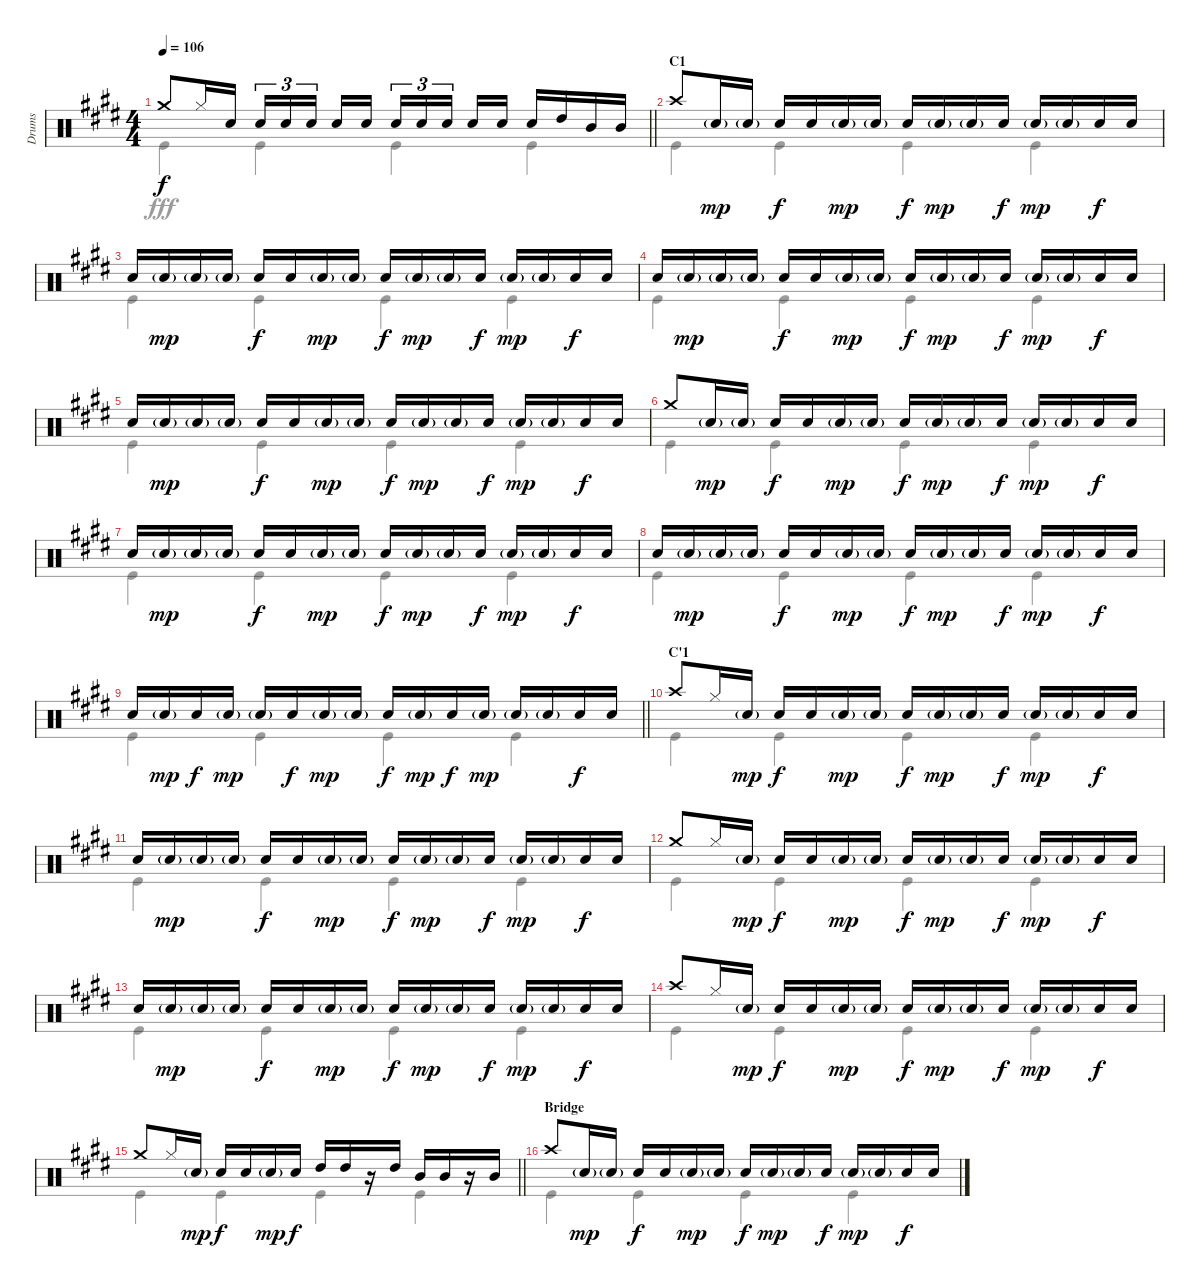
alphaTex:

\track ("Drums" "Drums") {instrument percussion}
\staff {score}
\articulation defaults
\voice
\ts (4 4)
\tempo 106
\clef neutral
\barLineRight lightlight
\ks e "Crash medium (hit)".8{dy f} "Hi-Hat (closed)".16 "Snare (hit) 2".16 "Snare (hit) 2".16{tu (3 2)} "Snare (hit) 2".16{tu (3 2)} "Snare (hit) 2".16{tu (3 2) beam splitsecondary} "Snare (hit) 2".16 "Snare (hit) 2".16 "Snare (hit) 2".16{tu (3 2)} "Snare (hit) 2".16{tu (3 2)} "Snare (hit) 2".16{tu (3 2) beam splitsecondary} "Snare (hit) 2".16 "Snare (hit) 2".16 "Snare (hit) 2".16 "High Tom (hit)".16 "Mid Tom (hit)".16 "Mid Tom (hit)".16
|
\section ("" "C1")
"Crash high (hit)".8 "Snare (hit) 2"{g}.16{dy mp} "Snare (hit) 2"{g}.16 "Snare (hit) 2".16{dy f} "Snare (hit) 2".16 "Snare (hit) 2"{g}.16{dy mp} "Snare (hit) 2"{g}.16 "Snare (hit) 2".16{dy f} "Snare (hit) 2"{g}.16{dy mp} "Snare (hit) 2"{g}.16 "Snare (hit) 2".16{dy f} "Snare (hit) 2"{g}.16{dy mp} "Snare (hit) 2"{g}.16 "Snare (hit) 2".16{dy f} "Snare (hit) 2".16 |
"Snare (hit) 2".16 "Snare (hit) 2"{g}.16{dy mp} "Snare (hit) 2"{g}.16 "Snare (hit) 2"{g}.16 "Snare (hit) 2".16{dy f} "Snare (hit) 2".16 "Snare (hit) 2"{g}.16{dy mp} "Snare (hit) 2"{g}.16 "Snare (hit) 2".16{dy f} "Snare (hit) 2"{g}.16{dy mp} "Snare (hit) 2"{g}.16 "Snare (hit) 2".16{dy f} "Snare (hit) 2"{g}.16{dy mp} "Snare (hit) 2"{g}.16 "Snare (hit) 2".16{dy f} "Snare (hit) 2".16 |
"Snare (hit) 2".16 "Snare (hit) 2"{g}.16{dy mp} "Snare (hit) 2"{g}.16 "Snare (hit) 2"{g}.16 "Snare (hit) 2".16{dy f} "Snare (hit) 2".16 "Snare (hit) 2"{g}.16{dy mp} "Snare (hit) 2"{g}.16 "Snare (hit) 2".16{dy f} "Snare (hit) 2"{g}.16{dy mp} "Snare (hit) 2"{g}.16 "Snare (hit) 2".16{dy f} "Snare (hit) 2"{g}.16{dy mp} "Snare (hit) 2"{g}.16 "Snare (hit) 2".16{dy f} "Snare (hit) 2".16 |
"Snare (hit) 2".16 "Snare (hit) 2"{g}.16{dy mp} "Snare (hit) 2"{g}.16 "Snare (hit) 2"{g}.16 "Snare (hit) 2".16{dy f} "Snare (hit) 2".16 "Snare (hit) 2"{g}.16{dy mp} "Snare (hit) 2"{g}.16 "Snare (hit) 2".16{dy f} "Snare (hit) 2"{g}.16{dy mp} "Snare (hit) 2"{g}.16 "Snare (hit) 2".16{dy f} "Snare (hit) 2"{g}.16{dy mp} "Snare (hit) 2"{g}.16 "Snare (hit) 2".16{dy f} "Snare (hit) 2".16 |
"Crash medium (hit)".8 "Snare (hit) 2"{g}.16{dy mp} "Snare (hit) 2"{g}.16 "Snare (hit) 2".16{dy f} "Snare (hit) 2".16 "Snare (hit) 2"{g}.16{dy mp} "Snare (hit) 2"{g}.16 "Snare (hit) 2".16{dy f} "Snare (hit) 2"{g}.16{dy mp} "Snare (hit) 2"{g}.16 "Snare (hit) 2".16{dy f} "Snare (hit) 2"{g}.16{dy mp} "Snare (hit) 2"{g}.16 "Snare (hit) 2".16{dy f} "Snare (hit) 2".16 |
"Snare (hit) 2".16 "Snare (hit) 2"{g}.16{dy mp} "Snare (hit) 2"{g}.16 "Snare (hit) 2"{g}.16 "Snare (hit) 2".16{dy f} "Snare (hit) 2".16 "Snare (hit) 2"{g}.16{dy mp} "Snare (hit) 2"{g}.16 "Snare (hit) 2".16{dy f} "Snare (hit) 2"{g}.16{dy mp} "Snare (hit) 2"{g}.16 "Snare (hit) 2".16{dy f} "Snare (hit) 2"{g}.16{dy mp} "Snare (hit) 2"{g}.16 "Snare (hit) 2".16{dy f} "Snare (hit) 2".16 |
"Snare (hit) 2".16 "Snare (hit) 2"{g}.16{dy mp} "Snare (hit) 2"{g}.16 "Snare (hit) 2"{g}.16 "Snare (hit) 2".16{dy f} "Snare (hit) 2".16 "Snare (hit) 2"{g}.16{dy mp} "Snare (hit) 2"{g}.16 "Snare (hit) 2".16{dy f} "Snare (hit) 2"{g}.16{dy mp} "Snare (hit) 2"{g}.16 "Snare (hit) 2".16{dy f} "Snare (hit) 2"{g}.16{dy mp} "Snare (hit) 2"{g}.16 "Snare (hit) 2".16{dy f} "Snare (hit) 2".16 |
\barLineRight lightlight "Snare (hit) 2".16 "Snare (hit) 2"{g}.16{dy mp} "Snare (hit) 2".16{dy f} "Snare (hit) 2"{g}.16{dy mp} "Snare (hit) 2"{g}.16 "Snare (hit) 2".16{dy f} "Snare (hit) 2"{g}.16{dy mp} "Snare (hit) 2"{g}.16 "Snare (hit) 2".16{dy f} "Snare (hit) 2"{g}.16{dy mp} "Snare (hit) 2".16{dy f} "Snare (hit) 2"{g}.16{dy mp} "Snare (hit) 2"{g}.16 "Snare (hit) 2"{g}.16 "Snare (hit) 2".16{dy f} "Snare (hit) 2".16
|
\section ("" "C'1")
"Crash high (hit)".8 "Hi-Hat (closed)".16 "Snare (hit) 2"{g}.16{dy mp} "Snare (hit) 2".16{dy f} "Snare (hit) 2".16 "Snare (hit) 2"{g}.16{dy mp} "Snare (hit) 2"{g}.16 "Snare (hit) 2".16{dy f} "Snare (hit) 2"{g}.16{dy mp} "Snare (hit) 2"{g}.16 "Snare (hit) 2".16{dy f} "Snare (hit) 2"{g}.16{dy mp} "Snare (hit) 2"{g}.16 "Snare (hit) 2".16{dy f} "Snare (hit) 2".16 |
"Snare (hit) 2".16 "Snare (hit) 2"{g}.16{dy mp} "Snare (hit) 2"{g}.16 "Snare (hit) 2"{g}.16 "Snare (hit) 2".16{dy f} "Snare (hit) 2".16 "Snare (hit) 2"{g}.16{dy mp} "Snare (hit) 2"{g}.16 "Snare (hit) 2".16{dy f} "Snare (hit) 2"{g}.16{dy mp} "Snare (hit) 2"{g}.16 "Snare (hit) 2".16{dy f} "Snare (hit) 2"{g}.16{dy mp} "Snare (hit) 2"{g}.16 "Snare (hit) 2".16{dy f} "Snare (hit) 2".16 |
"Crash medium (hit)".8 "Hi-Hat (closed)".16 "Snare (hit) 2"{g}.16{dy mp} "Snare (hit) 2".16{dy f} "Snare (hit) 2".16 "Snare (hit) 2"{g}.16{dy mp} "Snare (hit) 2"{g}.16 "Snare (hit) 2".16{dy f} "Snare (hit) 2"{g}.16{dy mp} "Snare (hit) 2"{g}.16 "Snare (hit) 2".16{dy f} "Snare (hit) 2"{g}.16{dy mp} "Snare (hit) 2"{g}.16 "Snare (hit) 2".16{dy f} "Snare (hit) 2".16 |
"Snare (hit) 2".16 "Snare (hit) 2"{g}.16{dy mp} "Snare (hit) 2"{g}.16 "Snare (hit) 2"{g}.16 "Snare (hit) 2".16{dy f} "Snare (hit) 2".16 "Snare (hit) 2"{g}.16{dy mp} "Snare (hit) 2"{g}.16 "Snare (hit) 2".16{dy f} "Snare (hit) 2"{g}.16{dy mp} "Snare (hit) 2"{g}.16 "Snare (hit) 2".16{dy f} "Snare (hit) 2"{g}.16{dy mp} "Snare (hit) 2"{g}.16 "Snare (hit) 2".16{dy f} "Snare (hit) 2".16 |
"Crash high (hit)".8 "Hi-Hat (closed)".16 "Snare (hit) 2"{g}.16{dy mp} "Snare (hit) 2".16{dy f} "Snare (hit) 2".16 "Snare (hit) 2"{g}.16{dy mp} "Snare (hit) 2"{g}.16 "Snare (hit) 2".16{dy f} "Snare (hit) 2"{g}.16{dy mp} "Snare (hit) 2"{g}.16 "Snare (hit) 2".16{dy f} "Snare (hit) 2"{g}.16{dy mp} "Snare (hit) 2"{g}.16 "Snare (hit) 2".16{dy f} "Snare (hit) 2".16 |
\barLineRight lightlight "Crash medium (hit)".8 "Hi-Hat (closed)".16 "Snare (hit) 2"{g}.16{dy mp} "Snare (hit) 2".16{dy f} "Snare (hit) 2".16 "Snare (hit) 2"{g}.16{dy mp} "Snare (hit) 2".16{dy f} "High Tom (hit)".16 "High Tom (hit)".16
r.16 "High Tom (hit)".16 "Mid Tom (hit)".16 "Mid Tom (hit)".16 r.16 "Mid Tom (hit)".16 |
\section ("" "Bridge")
"Crash high (hit)".8 "Snare (hit) 2"{g}.16{dy mp} "Snare (hit) 2"{g}.16 "Snare (hit) 2".16{dy f} "Snare (hit) 2".16 "Snare (hit) 2"{g}.16{dy mp} "Snare (hit) 2"{g}.16 "Snare (hit) 2".16{dy f} "Snare (hit) 2"{g}.16{dy mp} "Snare (hit) 2"{g}.16 "Snare (hit) 2".16{dy f} "Snare (hit) 2"{g}.16{dy mp} "Snare (hit) 2"{g}.16 "Snare (hit) 2".16{dy f} "Snare (hit) 2".16
\voice
\clef neutral
\ottava regular
\simile none
\barLineRight lightlight
\ks e "Kick (hit)".4{dy fff} "Kick (hit)".4 "Kick (hit)".4 "Kick (hit)".4
|
"Kick (hit)".4 "Kick (hit)".4 "Kick (hit)".4 "Kick (hit)".4 |
"Kick (hit)".4 "Kick (hit)".4 "Kick (hit)".4 "Kick (hit)".4 |
"Kick (hit)".4 "Kick (hit)".4 "Kick (hit)".4 "Kick (hit)".4 |
"Kick (hit)".4 "Kick (hit)".4 "Kick (hit)".4 "Kick (hit)".4 |
"Kick (hit)".4 "Kick (hit)".4 "Kick (hit)".4 "Kick (hit)".4 |
"Kick (hit)".4 "Kick (hit)".4 "Kick (hit)".4 "Kick (hit)".4 |
"Kick (hit)".4 "Kick (hit)".4 "Kick (hit)".4 "Kick (hit)".4 |
\barLineRight lightlight "Kick (hit)".4 "Kick (hit)".4 "Kick (hit)".4 "Kick (hit)".4
|
"Kick (hit)".4 "Kick (hit)".4 "Kick (hit)".4 "Kick (hit)".4 |
"Kick (hit)".4 "Kick (hit)".4 "Kick (hit)".4 "Kick (hit)".4 |
"Kick (hit)".4 "Kick (hit)".4 "Kick (hit)".4 "Kick (hit)".4 |
"Kick (hit)".4 "Kick (hit)".4 "Kick (hit)".4 "Kick (hit)".4 |
"Kick (hit)".4 "Kick (hit)".4 "Kick (hit)".4 "Kick (hit)".4 |
\barLineRight lightlight "Kick (hit)".4 "Kick (hit)".4 "Kick (hit)".4 "Kick (hit)".4
|
"Kick (hit)".4 "Kick (hit)".4 "Kick (hit)".4 "Kick (hit)".4
